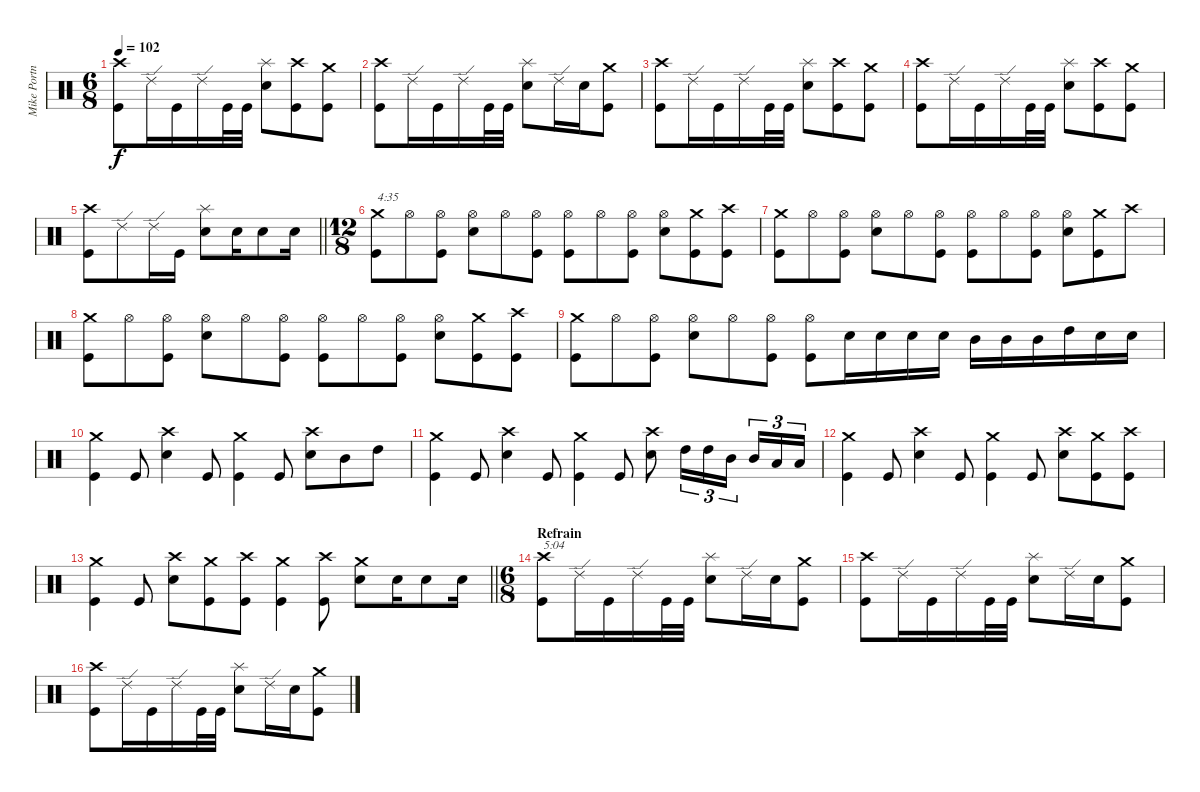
\track ("Mike Portnoy" "Mike Portn") {instrument percussion}
\staff {score}
\articulation defaults
\ts (6 8)
\tempo 102
\clef neutral
\ks c
("Crash high (hit)" "Kick (hit)").8{dy f} "Ride (edge) 2".16 "Kick (hit)".16 "Ride (edge) 2".16 "Kick (hit)".32 "Kick (hit)".32 ("Splash (hit)" "Snare (hit) 2").8 ("Crash high (hit)" "Kick (hit)").8 ("Crash medium (hit)" "Kick (hit)").8 |
("Crash high (hit)" "Kick (hit)").8 "Ride (edge) 2".16 "Kick (hit)".16 "Ride (edge) 2".16 "Kick (hit)".32 "Kick (hit)".32 ("Splash (hit)" "Snare (hit) 2").8 "Ride (edge) 2".16 "Snare (hit) 2".16 ("Crash medium (hit)" "Kick (hit)").8 |
("Crash high (hit)" "Kick (hit)").8 "Ride (edge) 2".16 "Kick (hit)".16 "Ride (edge) 2".16 "Kick (hit)".32 "Kick (hit)".32 ("Splash (hit)" "Snare (hit) 2").8 ("Crash high (hit)" "Kick (hit)").8 ("Crash medium (hit)" "Kick (hit)").8 |
("Crash high (hit)" "Kick (hit)").8 "Ride (edge) 2".16 "Kick (hit)".16 "Ride (edge) 2".16 "Kick (hit)".32 "Kick (hit)".32 ("Splash (hit)" "Snare (hit) 2").8 ("Crash high (hit)" "Kick (hit)").8 ("Crash medium (hit)" "Kick (hit)").8 |
\barLineRight lightlight
("Crash high (hit)" "Kick (hit)").8 "Ride (edge) 2".8 "Ride (edge) 2".16 "Kick (hit)".16 ("Splash (hit)" "Snare (hit) 2").8 "Snare (hit) 2".16 "Snare (hit) 2".8 "Snare (hit) 2".16 |
\ts (12 8)
\section ("" "")
("Crash medium (hit)" "Kick (hit)").8{txt "4:35"} "Hi-Hat (open)".8 ("Hi-Hat (open)" "Kick (hit)").8 ("Hi-Hat (open)" "Snare (hit) 2").8 "Hi-Hat (open)".8 ("Hi-Hat (open)" "Kick (hit)").8 ("Hi-Hat (open)" "Kick (hit)").8 "Hi-Hat (open)".8 ("Hi-Hat (open)" "Kick (hit)").8 ("Hi-Hat (open)" "Snare (hit) 2").8 ("Crash medium (hit)" "Kick (hit)").8 ("Crash high (hit)" "Kick (hit)").8 |
("Crash medium (hit)" "Kick (hit)").8 "Hi-Hat (open)".8 ("Hi-Hat (open)" "Kick (hit)").8 ("Hi-Hat (open)" "Snare (hit) 2").8 "Hi-Hat (open)".8 ("Hi-Hat (open)" "Kick (hit)").8 ("Hi-Hat (open)" "Kick (hit)").8 "Hi-Hat (open)".8 ("Hi-Hat (open)" "Kick (hit)").8 ("Hi-Hat (open)" "Snare (hit) 2").8 ("Crash medium (hit)" "Kick (hit)").8 "Crash high (hit)".8 |
("Crash medium (hit)" "Kick (hit)").8 "Hi-Hat (open)".8 ("Hi-Hat (open)" "Kick (hit)").8 ("Hi-Hat (open)" "Snare (hit) 2").8 "Hi-Hat (open)".8 ("Hi-Hat (open)" "Kick (hit)").8 ("Hi-Hat (open)" "Kick (hit)").8 "Hi-Hat (open)".8 ("Hi-Hat (open)" "Kick (hit)").8 ("Hi-Hat (open)" "Snare (hit) 2").8 ("Crash medium (hit)" "Kick (hit)").8 ("Crash high (hit)" "Kick (hit)").8 |
("Crash medium (hit)" "Kick (hit)").8 "Hi-Hat (open)".8 ("Hi-Hat (open)" "Kick (hit)").8 ("Hi-Hat (open)" "Snare (hit) 2").8 "Hi-Hat (open)".8 ("Hi-Hat (open)" "Kick (hit)").8 ("Hi-Hat (open)" "Kick (hit)").8 "Snare (hit) 2".16 "Snare (hit) 2".16 "Snare (hit) 2".16 "Snare (hit) 2".16 "Mid Tom (hit)".16 "Mid Tom (hit)".16 "Mid Tom (hit)".16 "High Tom (hit)".16 "Snare (hit) 2".16 "Snare (hit) 2".16 |
("Crash medium (hit)" "Kick (hit)").4 "Kick (hit)".8 ("Crash high (hit)" "Snare (hit) 2").4 "Kick (hit)".8 ("Crash medium (hit)" "Kick (hit)").4 "Kick (hit)".8 ("Crash high (hit)" "Snare (hit) 2").8 "Mid Tom (hit)".8 "High Tom (hit)".8 |
("Crash medium (hit)" "Kick (hit)").4 "Kick (hit)".8 ("Crash high (hit)" "Snare (hit) 2").4 "Kick (hit)".8 ("Crash medium (hit)" "Kick (hit)").4 "Kick (hit)".8 ("Crash high (hit)" "Snare (hit) 2").8 "High Tom (hit)".16{tu (3 2)} "High Tom (hit)".16{tu (3 2)} "Mid Tom (hit)".16{tu (3 2)} "Mid Tom (hit)".16{tu (3 2)} "Low Tom (hit)".16{tu (3 2)} "Low Tom (hit)".16{tu (3 2)} |
("Crash medium (hit)" "Kick (hit)").4 "Kick (hit)".8 ("Crash high (hit)" "Snare (hit) 2").4 "Kick (hit)".8 ("Crash medium (hit)" "Kick (hit)").4 "Kick (hit)".8 ("Crash high (hit)" "Snare (hit) 2").8 ("Crash medium (hit)" "Kick (hit)").8 ("Crash high (hit)" "Kick (hit)").8 |
\barLineRight lightlight
("Crash medium (hit)" "Kick (hit)").4 "Kick (hit)".8 ("Crash high (hit)" "Snare (hit) 2").8 ("Crash medium (hit)" "Kick (hit)").8 ("Crash high (hit)" "Kick (hit)").8 ("Crash medium (hit)" "Kick (hit)").4 ("Crash high (hit)" "Kick (hit)").8 ("Crash medium (hit)" "Snare (hit) 2").8 "Snare (hit) 2".16 "Snare (hit) 2".8 "Snare (hit) 2".16 |
\ts (6 8)
\section ("" "Refrain")
("Crash high (hit)" "Kick (hit)").8{txt "5:04"} "Ride (edge) 2".16 "Kick (hit)".16 "Ride (edge) 2".16 "Kick (hit)".32 "Kick (hit)".32 ("Splash (hit)" "Snare (hit) 2").8 "Ride (edge) 2".16 "Snare (hit) 2".16 ("Crash medium (hit)" "Kick (hit)").8 |
("Crash high (hit)" "Kick (hit)").8 "Ride (edge) 2".16 "Kick (hit)".16 "Ride (edge) 2".16 "Kick (hit)".32 "Kick (hit)".32 ("Splash (hit)" "Snare (hit) 2").8 "Ride (edge) 2".16 "Snare (hit) 2".16 ("Crash medium (hit)" "Kick (hit)").8 |
("Crash high (hit)" "Kick (hit)").8 "Ride (edge) 2".16 "Kick (hit)".16 "Ride (edge) 2".16 "Kick (hit)".32 "Kick (hit)".32 ("Splash (hit)" "Snare (hit) 2").8 "Ride (edge) 2".16 "Snare (hit) 2".16 ("Crash medium (hit)" "Kick (hit)").8
